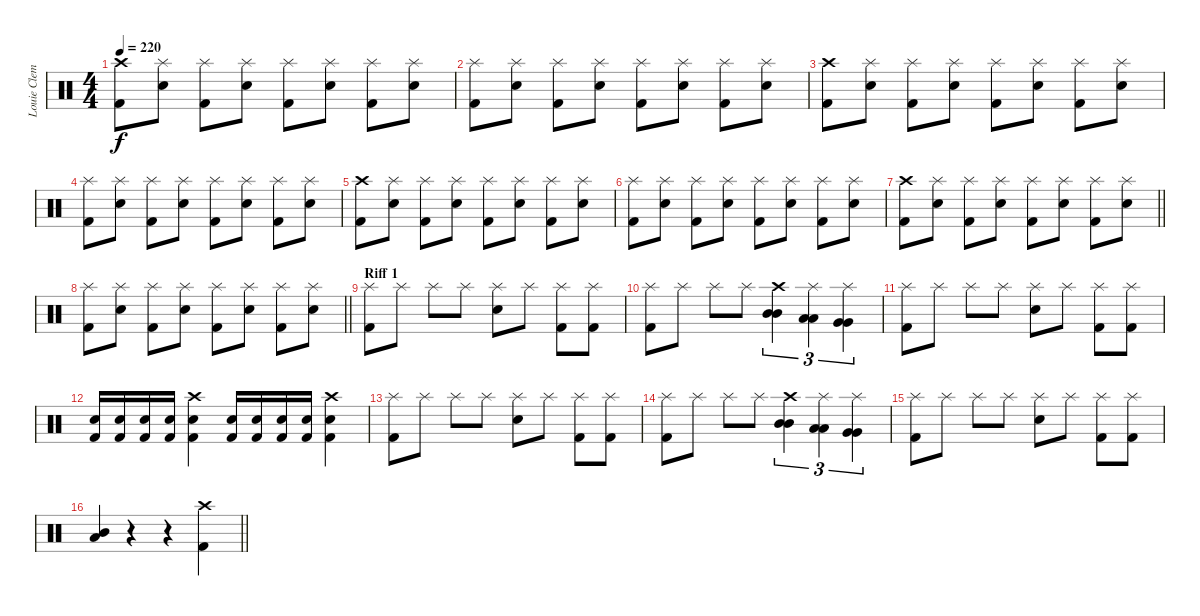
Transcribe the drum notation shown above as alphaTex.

\track ("Louie Clemente (Drums)" "Louie Clem") {instrument percussion}
\staff {score}
\articulation defaults
\ts (4 4)
\tempo 220
\clef neutral
\ks c
("Crash high (hit)" "Kick (hit) 2").8{dy f} ("Splash (hit)" "Electric Snare (hit)").8 ("Splash (hit)" "Kick (hit) 2").8 ("Splash (hit)" "Electric Snare (hit)").8 ("Splash (hit)" "Kick (hit) 2").8 ("Splash (hit)" "Electric Snare (hit)").8 ("Splash (hit)" "Kick (hit) 2").8 ("Splash (hit)" "Electric Snare (hit)").8 |
("Splash (hit)" "Kick (hit) 2").8 ("Splash (hit)" "Electric Snare (hit)").8 ("Splash (hit)" "Kick (hit) 2").8 ("Splash (hit)" "Electric Snare (hit)").8 ("Splash (hit)" "Kick (hit) 2").8 ("Splash (hit)" "Electric Snare (hit)").8 ("Splash (hit)" "Kick (hit) 2").8 ("Splash (hit)" "Electric Snare (hit)").8 |
("Crash high (hit)" "Kick (hit) 2").8 ("Splash (hit)" "Electric Snare (hit)").8 ("Splash (hit)" "Kick (hit) 2").8 ("Splash (hit)" "Electric Snare (hit)").8 ("Splash (hit)" "Kick (hit) 2").8 ("Splash (hit)" "Electric Snare (hit)").8 ("Splash (hit)" "Kick (hit) 2").8 ("Splash (hit)" "Electric Snare (hit)").8 |
("Splash (hit)" "Kick (hit) 2").8 ("Splash (hit)" "Electric Snare (hit)").8 ("Splash (hit)" "Kick (hit) 2").8 ("Splash (hit)" "Electric Snare (hit)").8 ("Splash (hit)" "Kick (hit) 2").8 ("Splash (hit)" "Electric Snare (hit)").8 ("Splash (hit)" "Kick (hit) 2").8 ("Splash (hit)" "Electric Snare (hit)").8 |
("Crash high (hit)" "Kick (hit) 2").8 ("Splash (hit)" "Electric Snare (hit)").8 ("Splash (hit)" "Kick (hit) 2").8 ("Splash (hit)" "Electric Snare (hit)").8 ("Splash (hit)" "Kick (hit) 2").8 ("Splash (hit)" "Electric Snare (hit)").8 ("Splash (hit)" "Kick (hit) 2").8 ("Splash (hit)" "Electric Snare (hit)").8 |
("Splash (hit)" "Kick (hit) 2").8 ("Splash (hit)" "Electric Snare (hit)").8 ("Splash (hit)" "Kick (hit) 2").8 ("Splash (hit)" "Electric Snare (hit)").8 ("Splash (hit)" "Kick (hit) 2").8 ("Splash (hit)" "Electric Snare (hit)").8 ("Splash (hit)" "Kick (hit) 2").8 ("Splash (hit)" "Electric Snare (hit)").8 |
\barLineRight lightlight
("Crash high (hit)" "Kick (hit) 2").8 ("Splash (hit)" "Electric Snare (hit)").8 ("Splash (hit)" "Kick (hit) 2").8 ("Splash (hit)" "Electric Snare (hit)").8 ("Splash (hit)" "Kick (hit) 2").8 ("Splash (hit)" "Electric Snare (hit)").8 ("Splash (hit)" "Kick (hit) 2").8 ("Splash (hit)" "Electric Snare (hit)").8 |
\barLineRight lightlight
("Splash (hit)" "Kick (hit) 2").8 ("Splash (hit)" "Electric Snare (hit)").8 ("Splash (hit)" "Kick (hit) 2").8 ("Splash (hit)" "Electric Snare (hit)").8 ("Splash (hit)" "Kick (hit) 2").8 ("Splash (hit)" "Electric Snare (hit)").8 ("Splash (hit)" "Kick (hit) 2").8 ("Splash (hit)" "Electric Snare (hit)").8 |
\section ("" "Riff 1")
("Splash (hit)" "Kick (hit) 2").8 "Splash (hit)".8 "Splash (hit)".8 "Splash (hit)".8 ("Splash (hit)" "Electric Snare (hit)").8 "Splash (hit)".8 ("Splash (hit)" "Kick (hit) 2").8 ("Splash (hit)" "Kick (hit) 2").8 |
("Splash (hit)" "Kick (hit) 2").8 "Splash (hit)".8 "Splash (hit)".8 "Splash (hit)".8 ("Crash high (hit)" "Mid Tom (hit)" "Mid Tom (hit)").4{tu (3 2)} ("Splash (hit)" "Low Tom (hit)" "Low Tom (hit)").4{tu (3 2)} ("Splash (hit)" "Very Low Tom (hit)" "Very Low Tom (hit)").4{tu (3 2)} |
("Splash (hit)" "Kick (hit) 2").8 "Splash (hit)".8 "Splash (hit)".8 "Splash (hit)".8 ("Splash (hit)" "Electric Snare (hit)").8 "Splash (hit)".8 ("Splash (hit)" "Kick (hit) 2").8 ("Splash (hit)" "Kick (hit) 2").8 |
("Electric Snare (hit)" "Kick (hit) 2").16 ("Electric Snare (hit)" "Kick (hit) 2").16 ("Electric Snare (hit)" "Kick (hit) 2").16 ("Electric Snare (hit)" "Kick (hit) 2").16 ("Crash high (hit)" "Electric Snare (hit)" "Kick (hit) 2").4 ("Electric Snare (hit)" "Kick (hit) 2").16 ("Electric Snare (hit)" "Kick (hit) 2").16 ("Electric Snare (hit)" "Kick (hit) 2").16 ("Electric Snare (hit)" "Kick (hit) 2").16 ("Crash high (hit)" "Electric Snare (hit)" "Kick (hit) 2").4 |
("Splash (hit)" "Kick (hit) 2").8 "Splash (hit)".8 "Splash (hit)".8 "Splash (hit)".8 ("Splash (hit)" "Electric Snare (hit)").8 "Splash (hit)".8 ("Splash (hit)" "Kick (hit) 2").8 ("Splash (hit)" "Kick (hit) 2").8 |
("Splash (hit)" "Kick (hit) 2").8 "Splash (hit)".8 "Splash (hit)".8 "Splash (hit)".8 ("Crash high (hit)" "Mid Tom (hit)" "Mid Tom (hit)").4{tu (3 2)} ("Splash (hit)" "Low Tom (hit)" "Low Tom (hit)").4{tu (3 2)} ("Splash (hit)" "Very Low Tom (hit)" "Very Low Tom (hit)").4{tu (3 2)} |
("Splash (hit)" "Kick (hit) 2").8 "Splash (hit)".8 "Splash (hit)".8 "Splash (hit)".8 ("Splash (hit)" "Electric Snare (hit)").8 "Splash (hit)".8 ("Splash (hit)" "Kick (hit) 2").8 ("Splash (hit)" "Kick (hit) 2").8 |
\barLineRight lightlight
("Mid Tom (hit)" "Low Tom (hit)").4 r.4 r.4 ("Crash high (hit)" "Kick (hit) 2").4
